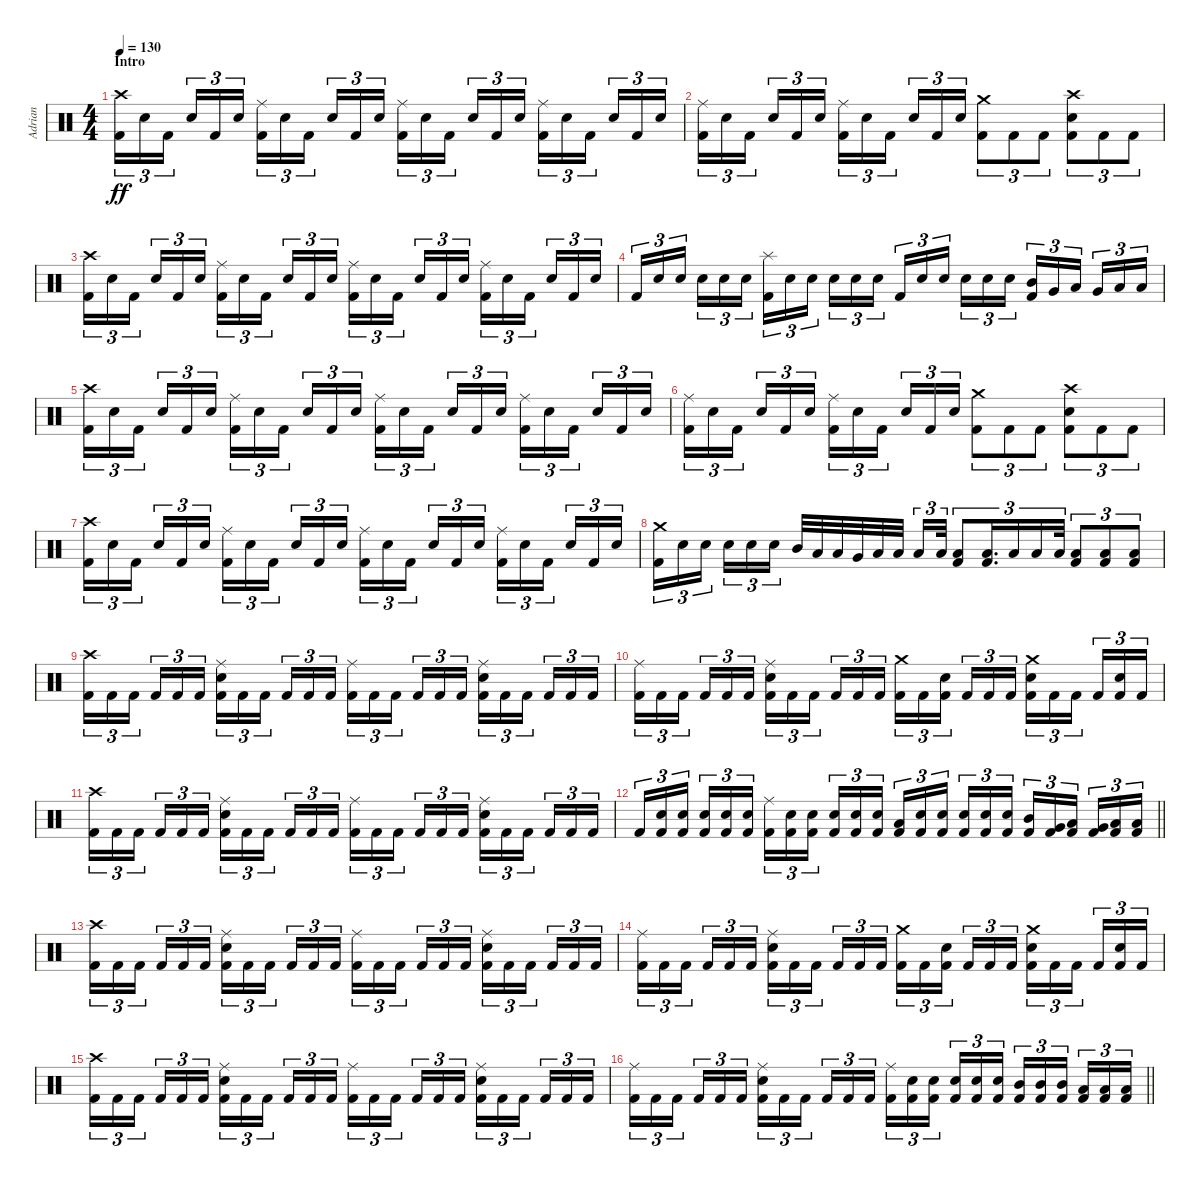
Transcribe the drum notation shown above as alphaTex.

\track ("Adrian" "Adrian") {instrument percussion}
\staff {score}
\articulation defaults
\ts (4 4)
\section ("" "Intro")
\tempo 130
\clef neutral
\ks c
("Crash high (hit)" "Kick (hit) 2").16{tu (3 2) dy ff} "Electric Snare (hit)".16{tu (3 2)} "Kick (hit) 2".16{tu (3 2) beam splitsecondary} "Electric Snare (hit)".16{tu (3 2)} "Kick (hit) 2".16{tu (3 2)} "Electric Snare (hit)".16{tu (3 2)} ("Ride (middle)" "Kick (hit) 2").16{tu (3 2)} "Electric Snare (hit)".16{tu (3 2)} "Kick (hit) 2".16{tu (3 2) beam splitsecondary} "Electric Snare (hit)".16{tu (3 2)} "Kick (hit) 2".16{tu (3 2)} "Electric Snare (hit)".16{tu (3 2)} ("Ride (middle)" "Kick (hit) 2").16{tu (3 2)} "Electric Snare (hit)".16{tu (3 2)} "Kick (hit) 2".16{tu (3 2) beam splitsecondary} "Electric Snare (hit)".16{tu (3 2)} "Kick (hit) 2".16{tu (3 2)} "Electric Snare (hit)".16{tu (3 2)} ("Ride (middle)" "Kick (hit) 2").16{tu (3 2)} "Electric Snare (hit)".16{tu (3 2)} "Kick (hit) 2".16{tu (3 2) beam splitsecondary} "Electric Snare (hit)".16{tu (3 2)} "Kick (hit) 2".16{tu (3 2)} "Electric Snare (hit)".16{tu (3 2)} |
("Ride (middle)" "Kick (hit) 2").16{tu (3 2)} "Electric Snare (hit)".16{tu (3 2)} "Kick (hit) 2".16{tu (3 2) beam splitsecondary} "Electric Snare (hit)".16{tu (3 2)} "Kick (hit) 2".16{tu (3 2)} "Electric Snare (hit)".16{tu (3 2)} ("Ride (middle)" "Kick (hit) 2").16{tu (3 2)} "Electric Snare (hit)".16{tu (3 2)} "Kick (hit) 2".16{tu (3 2) beam splitsecondary} "Electric Snare (hit)".16{tu (3 2)} "Kick (hit) 2".16{tu (3 2)} "Electric Snare (hit)".16{tu (3 2)} ("Crash medium (hit)" "Kick (hit) 2").8{tu (3 2)} "Kick (hit) 2".8{tu (3 2)} "Kick (hit) 2".8{tu (3 2)} ("Crash high (hit)" "Electric Snare (hit)" "Kick (hit) 2").8{tu (3 2)} "Kick (hit) 2".8{tu (3 2)} "Kick (hit) 2".8{tu (3 2)} |
("Crash high (hit)" "Kick (hit) 2").16{tu (3 2)} "Electric Snare (hit)".16{tu (3 2)} "Kick (hit) 2".16{tu (3 2) beam splitsecondary} "Electric Snare (hit)".16{tu (3 2)} "Kick (hit) 2".16{tu (3 2)} "Electric Snare (hit)".16{tu (3 2)} ("Ride (middle)" "Kick (hit) 2").16{tu (3 2)} "Electric Snare (hit)".16{tu (3 2)} "Kick (hit) 2".16{tu (3 2) beam splitsecondary} "Electric Snare (hit)".16{tu (3 2)} "Kick (hit) 2".16{tu (3 2)} "Electric Snare (hit)".16{tu (3 2)} ("Ride (middle)" "Kick (hit) 2").16{tu (3 2)} "Electric Snare (hit)".16{tu (3 2)} "Kick (hit) 2".16{tu (3 2) beam splitsecondary} "Electric Snare (hit)".16{tu (3 2)} "Kick (hit) 2".16{tu (3 2)} "Electric Snare (hit)".16{tu (3 2)} ("Ride (middle)" "Kick (hit) 2").16{tu (3 2)} "Electric Snare (hit)".16{tu (3 2)} "Kick (hit) 2".16{tu (3 2) beam splitsecondary} "Electric Snare (hit)".16{tu (3 2)} "Kick (hit) 2".16{tu (3 2)} "Electric Snare (hit)".16{tu (3 2)} |
"Kick (hit) 2".16{tu (3 2)} "Electric Snare (hit)".16{tu (3 2)} "Electric Snare (hit)".16{tu (3 2) beam splitsecondary} "Electric Snare (hit)".16{tu (3 2)} "Electric Snare (hit)".16{tu (3 2)} "Electric Snare (hit)".16{tu (3 2)} ("Splash (hit)" "Kick (hit) 2").16{tu (3 2)} "Electric Snare (hit)".16{tu (3 2)} "Electric Snare (hit)".16{tu (3 2) beam splitsecondary} "Electric Snare (hit)".16{tu (3 2)} "Electric Snare (hit)".16{tu (3 2)} "Electric Snare (hit)".16{tu (3 2)} "Kick (hit) 2".16{tu (3 2)} "Electric Snare (hit)".16{tu (3 2)} "Electric Snare (hit)".16{tu (3 2) beam splitsecondary} "Electric Snare (hit)".16{tu (3 2)} "Electric Snare (hit)".16{tu (3 2)} "Electric Snare (hit)".16{tu (3 2)} ("Mid Tom (hit)" "Kick (hit) 2").16{tu (3 2)} "Very Low Tom (hit)".16{tu (3 2)} "Low Tom (hit)".16{tu (3 2) beam splitsecondary} "Very Low Tom (hit)".16{tu (3 2)} "Low Floor Tom (hit)".16{tu (3 2)} "Low Floor Tom (hit)".16{tu (3 2)} |
("Crash high (hit)" "Kick (hit) 2").16{tu (3 2)} "Electric Snare (hit)".16{tu (3 2)} "Kick (hit) 2".16{tu (3 2) beam splitsecondary} "Electric Snare (hit)".16{tu (3 2)} "Kick (hit) 2".16{tu (3 2)} "Electric Snare (hit)".16{tu (3 2)} ("Ride (middle)" "Kick (hit) 2").16{tu (3 2)} "Electric Snare (hit)".16{tu (3 2)} "Kick (hit) 2".16{tu (3 2) beam splitsecondary} "Electric Snare (hit)".16{tu (3 2)} "Kick (hit) 2".16{tu (3 2)} "Electric Snare (hit)".16{tu (3 2)} ("Ride (middle)" "Kick (hit) 2").16{tu (3 2)} "Electric Snare (hit)".16{tu (3 2)} "Kick (hit) 2".16{tu (3 2) beam splitsecondary} "Electric Snare (hit)".16{tu (3 2)} "Kick (hit) 2".16{tu (3 2)} "Electric Snare (hit)".16{tu (3 2)} ("Ride (middle)" "Kick (hit) 2").16{tu (3 2)} "Electric Snare (hit)".16{tu (3 2)} "Kick (hit) 2".16{tu (3 2) beam splitsecondary} "Electric Snare (hit)".16{tu (3 2)} "Kick (hit) 2".16{tu (3 2)} "Electric Snare (hit)".16{tu (3 2)} |
("Ride (middle)" "Kick (hit) 2").16{tu (3 2)} "Electric Snare (hit)".16{tu (3 2)} "Kick (hit) 2".16{tu (3 2) beam splitsecondary} "Electric Snare (hit)".16{tu (3 2)} "Kick (hit) 2".16{tu (3 2)} "Electric Snare (hit)".16{tu (3 2)} ("Ride (middle)" "Kick (hit) 2").16{tu (3 2)} "Electric Snare (hit)".16{tu (3 2)} "Kick (hit) 2".16{tu (3 2) beam splitsecondary} "Electric Snare (hit)".16{tu (3 2)} "Kick (hit) 2".16{tu (3 2)} "Electric Snare (hit)".16{tu (3 2)} ("Crash medium (hit)" "Kick (hit) 2").8{tu (3 2)} "Kick (hit) 2".8{tu (3 2)} "Kick (hit) 2".8{tu (3 2)} ("Crash high (hit)" "Electric Snare (hit)" "Kick (hit) 2").8{tu (3 2)} "Kick (hit) 2".8{tu (3 2)} "Kick (hit) 2".8{tu (3 2)} |
("Crash high (hit)" "Kick (hit) 2").16{tu (3 2)} "Electric Snare (hit)".16{tu (3 2)} "Kick (hit) 2".16{tu (3 2) beam splitsecondary} "Electric Snare (hit)".16{tu (3 2)} "Kick (hit) 2".16{tu (3 2)} "Electric Snare (hit)".16{tu (3 2)} ("Ride (middle)" "Kick (hit) 2").16{tu (3 2)} "Electric Snare (hit)".16{tu (3 2)} "Kick (hit) 2".16{tu (3 2) beam splitsecondary} "Electric Snare (hit)".16{tu (3 2)} "Kick (hit) 2".16{tu (3 2)} "Electric Snare (hit)".16{tu (3 2)} ("Ride (middle)" "Kick (hit) 2").16{tu (3 2)} "Electric Snare (hit)".16{tu (3 2)} "Kick (hit) 2".16{tu (3 2) beam splitsecondary} "Electric Snare (hit)".16{tu (3 2)} "Kick (hit) 2".16{tu (3 2)} "Electric Snare (hit)".16{tu (3 2)} ("Ride (middle)" "Kick (hit) 2").16{tu (3 2)} "Electric Snare (hit)".16{tu (3 2)} "Kick (hit) 2".16{tu (3 2) beam splitsecondary} "Electric Snare (hit)".16{tu (3 2)} "Kick (hit) 2".16{tu (3 2)} "Electric Snare (hit)".16{tu (3 2)} |
("Crash medium (hit)" "Kick (hit) 2").16{tu (3 2)} "Electric Snare (hit)".16{tu (3 2)} "Electric Snare (hit)".16{tu (3 2) beam splitsecondary} "Electric Snare (hit)".16{tu (3 2)} "Electric Snare (hit)".16{tu (3 2)} "Electric Snare (hit)".16{tu (3 2)} "Mid Tom (hit)".32 "Low Floor Tom (hit)".32 "Low Tom (hit)".32 "Very Low Tom (hit)".32 "Low Floor Tom (hit)".32 "Low Floor Tom (hit)".32{beam splitsecondary} "Low Tom (hit)".16{tu (3 2)} "Low Tom (hit)".32{tu (3 2)} ("Low Tom (hit)" "Kick (hit) 2").8{tu (3 2)} ("Low Tom (hit)" "Kick (hit) 2").16{d tu (3 2)} "Low Tom (hit)".16{tu (3 2)} "Low Tom (hit)".16{tu (3 2)} "Low Tom (hit)".32{tu (3 2)} ("Low Tom (hit)" "Kick (hit) 2").8{tu (3 2)} ("Low Tom (hit)" "Kick (hit) 2").8{tu (3 2)} ("Low Tom (hit)" "Kick (hit) 2").8{tu (3 2)} |
("Crash high (hit)" "Kick (hit) 2").16{tu (3 2)} "Kick (hit) 2".16{tu (3 2)} "Kick (hit) 2".16{tu (3 2) beam splitsecondary} "Kick (hit) 2".16{tu (3 2)} "Kick (hit) 2".16{tu (3 2)} "Kick (hit) 2".16{tu (3 2)} ("Ride (middle)" "Electric Snare (hit)" "Kick (hit) 2").16{tu (3 2)} "Kick (hit) 2".16{tu (3 2)} "Kick (hit) 2".16{tu (3 2) beam splitsecondary} "Kick (hit) 2".16{tu (3 2)} "Kick (hit) 2".16{tu (3 2)} "Kick (hit) 2".16{tu (3 2)} ("Ride (middle)" "Kick (hit) 2").16{tu (3 2)} "Kick (hit) 2".16{tu (3 2)} "Kick (hit) 2".16{tu (3 2) beam splitsecondary} "Kick (hit) 2".16{tu (3 2)} "Kick (hit) 2".16{tu (3 2)} "Kick (hit) 2".16{tu (3 2)} ("Ride (middle)" "Electric Snare (hit)" "Kick (hit) 2").16{tu (3 2)} "Kick (hit) 2".16{tu (3 2)} "Kick (hit) 2".16{tu (3 2) beam splitsecondary} "Kick (hit) 2".16{tu (3 2)} "Kick (hit) 2".16{tu (3 2)} "Kick (hit) 2".16{tu (3 2)} |
("Ride (middle)" "Kick (hit) 2").16{tu (3 2)} "Kick (hit) 2".16{tu (3 2)} "Kick (hit) 2".16{tu (3 2) beam splitsecondary} "Kick (hit) 2".16{tu (3 2)} "Kick (hit) 2".16{tu (3 2)} "Kick (hit) 2".16{tu (3 2)} ("Ride (middle)" "Electric Snare (hit)" "Kick (hit) 2").16{tu (3 2)} "Kick (hit) 2".16{tu (3 2)} "Kick (hit) 2".16{tu (3 2) beam splitsecondary} "Kick (hit) 2".16{tu (3 2)} "Kick (hit) 2".16{tu (3 2)} "Kick (hit) 2".16{tu (3 2)} ("Crash medium (hit)" "Kick (hit) 2").16{tu (3 2)} "Kick (hit) 2".16{tu (3 2)} ("Electric Snare (hit)" "Kick (hit) 2").16{tu (3 2) beam splitsecondary} "Kick (hit) 2".16{tu (3 2)} "Kick (hit) 2".16{tu (3 2)} "Kick (hit) 2".16{tu (3 2)} ("Crash medium (hit)" "Electric Snare (hit)" "Kick (hit) 2").16{tu (3 2)} "Kick (hit) 2".16{tu (3 2)} "Kick (hit) 2".16{tu (3 2) beam splitsecondary} "Kick (hit) 2".16{tu (3 2)} ("Electric Snare (hit)" "Kick (hit) 2").16{tu (3 2)} "Kick (hit) 2".16{tu (3 2)} |
("Crash high (hit)" "Kick (hit) 2").16{tu (3 2)} "Kick (hit) 2".16{tu (3 2)} "Kick (hit) 2".16{tu (3 2) beam splitsecondary} "Kick (hit) 2".16{tu (3 2)} "Kick (hit) 2".16{tu (3 2)} "Kick (hit) 2".16{tu (3 2)} ("Ride (middle)" "Electric Snare (hit)" "Kick (hit) 2").16{tu (3 2)} "Kick (hit) 2".16{tu (3 2)} "Kick (hit) 2".16{tu (3 2) beam splitsecondary} "Kick (hit) 2".16{tu (3 2)} "Kick (hit) 2".16{tu (3 2)} "Kick (hit) 2".16{tu (3 2)} ("Ride (middle)" "Kick (hit) 2").16{tu (3 2)} "Kick (hit) 2".16{tu (3 2)} "Kick (hit) 2".16{tu (3 2) beam splitsecondary} "Kick (hit) 2".16{tu (3 2)} "Kick (hit) 2".16{tu (3 2)} "Kick (hit) 2".16{tu (3 2)} ("Ride (middle)" "Electric Snare (hit)" "Kick (hit) 2").16{tu (3 2)} "Kick (hit) 2".16{tu (3 2)} "Kick (hit) 2".16{tu (3 2) beam splitsecondary} "Kick (hit) 2".16{tu (3 2)} "Kick (hit) 2".16{tu (3 2)} "Kick (hit) 2".16{tu (3 2)} |
\barLineRight lightlight "Kick (hit) 2".16{tu (3 2)}
("Electric Snare (hit)" "Kick (hit) 2").16{tu (3 2)} ("Electric Snare (hit)" "Kick (hit) 2").16{tu (3 2) beam splitsecondary} ("Electric Snare (hit)" "Kick (hit) 2").16{tu (3 2)} ("Electric Snare (hit)" "Kick (hit) 2").16{tu (3 2)} ("Electric Snare (hit)" "Kick (hit) 2").16{tu (3 2)} ("Ride (middle)" "Kick (hit) 2").16{tu (3 2)} ("Electric Snare (hit)" "Kick (hit) 2").16{tu (3 2)} ("Electric Snare (hit)" "Kick (hit) 2").16{tu (3 2) beam splitsecondary} ("Electric Snare (hit)" "Kick (hit) 2").16{tu (3 2)} ("Electric Snare (hit)" "Kick (hit) 2").16{tu (3 2)} ("Electric Snare (hit)" "Kick (hit) 2").16{tu (3 2)} ("Low Tom (hit)" "Kick (hit) 2").16{tu (3 2)} ("Electric Snare (hit)" "Kick (hit) 2").16{tu (3 2)} ("Electric Snare (hit)" "Kick (hit) 2").16{tu (3 2) beam splitsecondary} ("Electric Snare (hit)" "Kick (hit) 2").16{tu (3 2)} ("Electric Snare (hit)" "Kick (hit) 2").16{tu (3 2)} ("Electric Snare (hit)" "Kick (hit) 2").16{tu (3 2)} ("Mid Tom (hit)" "Kick (hit) 2").16{tu (3 2)} ("Very Low Tom (hit)" "Kick (hit) 2").16{tu (3 2)} ("Low Tom (hit)" "Kick (hit) 2").16{tu (3 2) beam splitsecondary} ("Very Low Tom (hit)" "Kick (hit) 2").16{tu (3 2)} ("Low Tom (hit)" "Kick (hit) 2").16{tu (3 2)} ("Low Tom (hit)" "Kick (hit) 2").16{tu (3 2)} |
("Crash high (hit)" "Kick (hit) 2").16{tu (3 2)} "Kick (hit) 2".16{tu (3 2)} "Kick (hit) 2".16{tu (3 2) beam splitsecondary} "Kick (hit) 2".16{tu (3 2)} "Kick (hit) 2".16{tu (3 2)} "Kick (hit) 2".16{tu (3 2)} ("Ride (middle)" "Electric Snare (hit)" "Kick (hit) 2").16{tu (3 2)} "Kick (hit) 2".16{tu (3 2)} "Kick (hit) 2".16{tu (3 2) beam splitsecondary} "Kick (hit) 2".16{tu (3 2)} "Kick (hit) 2".16{tu (3 2)} "Kick (hit) 2".16{tu (3 2)} ("Ride (middle)" "Kick (hit) 2").16{tu (3 2)} "Kick (hit) 2".16{tu (3 2)} "Kick (hit) 2".16{tu (3 2) beam splitsecondary} "Kick (hit) 2".16{tu (3 2)} "Kick (hit) 2".16{tu (3 2)} "Kick (hit) 2".16{tu (3 2)} ("Ride (middle)" "Electric Snare (hit)" "Kick (hit) 2").16{tu (3 2)} "Kick (hit) 2".16{tu (3 2)} "Kick (hit) 2".16{tu (3 2) beam splitsecondary} "Kick (hit) 2".16{tu (3 2)} "Kick (hit) 2".16{tu (3 2)} "Kick (hit) 2".16{tu (3 2)} |
("Ride (middle)" "Kick (hit) 2").16{tu (3 2)} "Kick (hit) 2".16{tu (3 2)} "Kick (hit) 2".16{tu (3 2) beam splitsecondary} "Kick (hit) 2".16{tu (3 2)} "Kick (hit) 2".16{tu (3 2)} "Kick (hit) 2".16{tu (3 2)} ("Ride (middle)" "Electric Snare (hit)" "Kick (hit) 2").16{tu (3 2)} "Kick (hit) 2".16{tu (3 2)} "Kick (hit) 2".16{tu (3 2) beam splitsecondary} "Kick (hit) 2".16{tu (3 2)} "Kick (hit) 2".16{tu (3 2)} "Kick (hit) 2".16{tu (3 2)} ("Crash medium (hit)" "Kick (hit) 2").16{tu (3 2)} "Kick (hit) 2".16{tu (3 2)} ("Electric Snare (hit)" "Kick (hit) 2").16{tu (3 2) beam splitsecondary} "Kick (hit) 2".16{tu (3 2)} "Kick (hit) 2".16{tu (3 2)} "Kick (hit) 2".16{tu (3 2)} ("Crash medium (hit)" "Electric Snare (hit)" "Kick (hit) 2").16{tu (3 2)} "Kick (hit) 2".16{tu (3 2)} "Kick (hit) 2".16{tu (3 2) beam splitsecondary} "Kick (hit) 2".16{tu (3 2)} ("Electric Snare (hit)" "Kick (hit) 2").16{tu (3 2)} "Kick (hit) 2".16{tu (3 2)} |
("Crash high (hit)" "Kick (hit) 2").16{tu (3 2)} "Kick (hit) 2".16{tu (3 2)} "Kick (hit) 2".16{tu (3 2) beam splitsecondary} "Kick (hit) 2".16{tu (3 2)} "Kick (hit) 2".16{tu (3 2)} "Kick (hit) 2".16{tu (3 2)} ("Ride (middle)" "Electric Snare (hit)" "Kick (hit) 2").16{tu (3 2)} "Kick (hit) 2".16{tu (3 2)} "Kick (hit) 2".16{tu (3 2) beam splitsecondary} "Kick (hit) 2".16{tu (3 2)} "Kick (hit) 2".16{tu (3 2)} "Kick (hit) 2".16{tu (3 2)} ("Ride (middle)" "Kick (hit) 2").16{tu (3 2)} "Kick (hit) 2".16{tu (3 2)} "Kick (hit) 2".16{tu (3 2) beam splitsecondary} "Kick (hit) 2".16{tu (3 2)} "Kick (hit) 2".16{tu (3 2)} "Kick (hit) 2".16{tu (3 2)} ("Ride (middle)" "Electric Snare (hit)" "Kick (hit) 2").16{tu (3 2)} "Kick (hit) 2".16{tu (3 2)} "Kick (hit) 2".16{tu (3 2) beam splitsecondary} "Kick (hit) 2".16{tu (3 2)} "Kick (hit) 2".16{tu (3 2)} "Kick (hit) 2".16{tu (3 2)} |
\barLineRight lightlight
("Ride (middle)" "Kick (hit) 2").16{tu (3 2)} "Kick (hit) 2".16{tu (3 2)} "Kick (hit) 2".16{tu (3 2) beam splitsecondary} "Kick (hit) 2".16{tu (3 2)} "Kick (hit) 2".16{tu (3 2)} "Kick (hit) 2".16{tu (3 2)} ("Ride (middle)" "Electric Snare (hit)" "Kick (hit) 2").16{tu (3 2)} "Kick (hit) 2".16{tu (3 2)} "Kick (hit) 2".16{tu (3 2) beam splitsecondary} "Kick (hit) 2".16{tu (3 2)} "Kick (hit) 2".16{tu (3 2)} "Kick (hit) 2".16{tu (3 2)} ("Ride (middle)" "Kick (hit) 2").16{tu (3 2)} ("Electric Snare (hit)" "Kick (hit) 2").16{tu (3 2)} ("Electric Snare (hit)" "Kick (hit) 2").16{tu (3 2) beam splitsecondary} ("Electric Snare (hit)" "Kick (hit) 2").16{tu (3 2)} ("Electric Snare (hit)" "Kick (hit) 2").16{tu (3 2)} ("Electric Snare (hit)" "Kick (hit) 2").16{tu (3 2)} ("Mid Tom (hit)" "Kick (hit) 2").16{tu (3 2)} ("Mid Tom (hit)" "Kick (hit) 2").16{tu (3 2)} ("Mid Tom (hit)" "Kick (hit) 2").16{tu (3 2) beam splitsecondary} ("Low Tom (hit)" "Kick (hit) 2").16{tu (3 2)} ("Low Tom (hit)" "Kick (hit) 2").16{tu (3 2)} ("Low Tom (hit)" "Kick (hit) 2").16{tu (3 2)}
